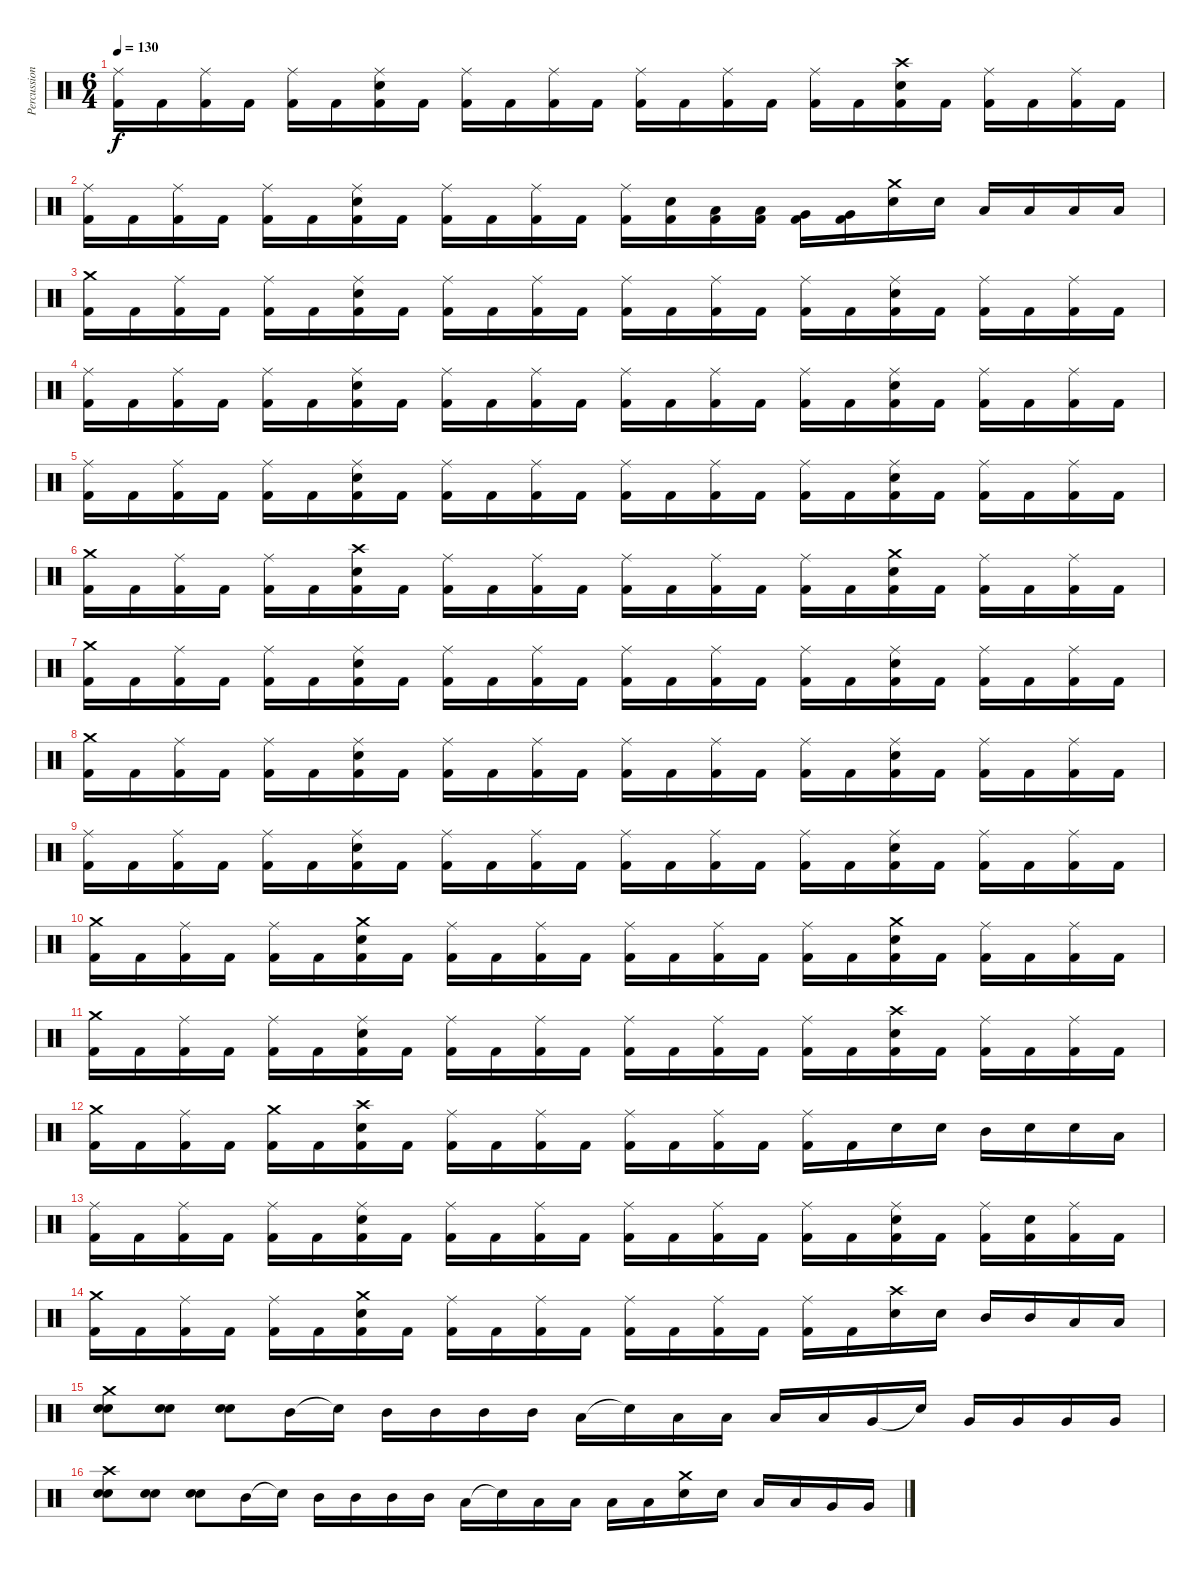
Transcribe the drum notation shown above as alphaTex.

\track ("Percussion" "Percussion") {instrument percussion}
\staff {score}
\articulation defaults
\ts (6 4)
\tempo 130
\clef neutral
\ks c
("Ride (middle)" "Kick (hit) 2").16{dy f} "Kick (hit) 2".16 ("Ride (middle)" "Kick (hit) 2").16 "Kick (hit) 2".16 ("Ride (middle)" "Kick (hit) 2").16 "Kick (hit) 2".16 ("Ride (middle)" "Snare (hit) 2" "Kick (hit) 2").16 "Kick (hit) 2".16 ("Ride (middle)" "Kick (hit) 2").16 "Kick (hit) 2".16 ("Ride (middle)" "Kick (hit) 2").16 "Kick (hit) 2".16 ("Ride (middle)" "Kick (hit) 2").16 "Kick (hit) 2".16 ("Ride (middle)" "Kick (hit) 2").16 "Kick (hit) 2".16 ("Ride (middle)" "Kick (hit) 2").16 "Kick (hit) 2".16 ("Crash high (hit)" "Snare (hit) 2" "Kick (hit) 2").16 "Kick (hit) 2".16 ("Ride (middle)" "Kick (hit) 2").16 "Kick (hit) 2".16 ("Ride (middle)" "Kick (hit) 2").16 "Kick (hit) 2".16 |
("Ride (middle)" "Kick (hit) 2").16 "Kick (hit) 2".16 ("Ride (middle)" "Kick (hit) 2").16 "Kick (hit) 2".16 ("Ride (middle)" "Kick (hit) 2").16 "Kick (hit) 2".16 ("Ride (middle)" "Snare (hit) 2" "Kick (hit) 2").16 "Kick (hit) 2".16 ("Ride (middle)" "Kick (hit) 2").16 "Kick (hit) 2".16 ("Ride (middle)" "Kick (hit) 2").16 "Kick (hit) 2".16 ("Ride (middle)" "Kick (hit) 2").16 ("Snare (hit) 2" "Kick (hit) 2").16 ("Low Tom (hit)" "Kick (hit) 2").16 ("Low Tom (hit)" "Kick (hit) 2").16 ("Very Low Tom (hit)" "Kick (hit) 2").16 ("Very Low Tom (hit)" "Kick (hit) 2").16 ("Crash medium (hit)" "Electric Snare (hit)").16 "Snare (hit) 2".16 "Low Tom (hit)".16 "Low Tom (hit)".16 "Low Tom (hit)".16 "Low Tom (hit)".16 |
("Crash medium (hit)" "Kick (hit) 2").16 "Kick (hit) 2".16 ("Ride (middle)" "Kick (hit) 2").16 "Kick (hit) 2".16 ("Ride (middle)" "Kick (hit) 2").16 "Kick (hit) 2".16 ("Ride (middle)" "Snare (hit) 2" "Kick (hit) 2").16 "Kick (hit) 2".16 ("Ride (middle)" "Kick (hit) 2").16 "Kick (hit) 2".16 ("Ride (middle)" "Kick (hit) 2").16 "Kick (hit) 2".16 ("Ride (middle)" "Kick (hit) 2").16 "Kick (hit) 2".16 ("Ride (middle)" "Kick (hit) 2").16 "Kick (hit) 2".16 ("Ride (middle)" "Kick (hit) 2").16 "Kick (hit) 2".16 ("Ride (middle)" "Snare (hit) 2" "Kick (hit) 2").16 "Kick (hit) 2".16 ("Ride (middle)" "Kick (hit) 2").16 "Kick (hit) 2".16 ("Ride (middle)" "Kick (hit) 2").16 "Kick (hit) 2".16 |
("Ride (middle)" "Kick (hit) 2").16 "Kick (hit) 2".16 ("Ride (middle)" "Kick (hit) 2").16 "Kick (hit) 2".16 ("Ride (middle)" "Kick (hit) 2").16 "Kick (hit) 2".16 ("Ride (middle)" "Snare (hit) 2" "Kick (hit) 2").16 "Kick (hit) 2".16 ("Ride (middle)" "Kick (hit) 2").16 "Kick (hit) 2".16 ("Ride (middle)" "Kick (hit) 2").16 "Kick (hit) 2".16 ("Ride (middle)" "Kick (hit) 2").16 "Kick (hit) 2".16 ("Ride (middle)" "Kick (hit) 2").16 "Kick (hit) 2".16 ("Ride (middle)" "Kick (hit) 2").16 "Kick (hit) 2".16 ("Ride (middle)" "Snare (hit) 2" "Kick (hit) 2").16 "Kick (hit) 2".16 ("Ride (middle)" "Kick (hit) 2").16 "Kick (hit) 2".16 ("Ride (middle)" "Kick (hit) 2").16 "Kick (hit) 2".16 |
("Ride (middle)" "Kick (hit) 2").16 "Kick (hit) 2".16 ("Ride (middle)" "Kick (hit) 2").16 "Kick (hit) 2".16 ("Ride (middle)" "Kick (hit) 2").16 "Kick (hit) 2".16 ("Ride (middle)" "Snare (hit) 2" "Kick (hit) 2").16 "Kick (hit) 2".16 ("Ride (middle)" "Kick (hit) 2").16 "Kick (hit) 2".16 ("Ride (middle)" "Kick (hit) 2").16 "Kick (hit) 2".16 ("Ride (middle)" "Kick (hit) 2").16 "Kick (hit) 2".16 ("Ride (middle)" "Kick (hit) 2").16 "Kick (hit) 2".16 ("Ride (middle)" "Kick (hit) 2").16 "Kick (hit) 2".16 ("Ride (middle)" "Snare (hit) 2" "Kick (hit) 2").16 "Kick (hit) 2".16 ("Ride (middle)" "Kick (hit) 2").16 "Kick (hit) 2".16 ("Ride (middle)" "Kick (hit) 2").16 "Kick (hit) 2".16 |
("Crash medium (hit)" "Kick (hit) 2").16 "Kick (hit) 2".16 ("Ride (middle)" "Kick (hit) 2").16 "Kick (hit) 2".16 ("Ride (middle)" "Kick (hit) 2").16 "Kick (hit) 2".16 ("Crash high (hit)" "Snare (hit) 2" "Kick (hit) 2").16 "Kick (hit) 2".16 ("Ride (middle)" "Kick (hit) 2").16 "Kick (hit) 2".16 ("Ride (middle)" "Kick (hit) 2").16 "Kick (hit) 2".16 ("Ride (middle)" "Kick (hit) 2").16 "Kick (hit) 2".16 ("Ride (middle)" "Kick (hit) 2").16 "Kick (hit) 2".16 ("Ride (middle)" "Kick (hit) 2").16 "Kick (hit) 2".16 ("Crash medium (hit)" "Snare (hit) 2" "Kick (hit) 2").16 "Kick (hit) 2".16 ("Ride (middle)" "Kick (hit) 2").16 "Kick (hit) 2".16 ("Ride (middle)" "Kick (hit) 2").16 "Kick (hit) 2".16 |
("Crash medium (hit)" "Kick (hit) 2").16 "Kick (hit) 2".16 ("Ride (middle)" "Kick (hit) 2").16 "Kick (hit) 2".16 ("Ride (middle)" "Kick (hit) 2").16 "Kick (hit) 2".16 ("Ride (middle)" "Snare (hit) 2" "Kick (hit) 2").16 "Kick (hit) 2".16 ("Ride (middle)" "Kick (hit) 2").16 "Kick (hit) 2".16 ("Ride (middle)" "Kick (hit) 2").16 "Kick (hit) 2".16 ("Ride (middle)" "Kick (hit) 2").16 "Kick (hit) 2".16 ("Ride (middle)" "Kick (hit) 2").16 "Kick (hit) 2".16 ("Ride (middle)" "Kick (hit) 2").16 "Kick (hit) 2".16 ("Ride (middle)" "Snare (hit) 2" "Kick (hit) 2").16 "Kick (hit) 2".16 ("Ride (middle)" "Kick (hit) 2").16 "Kick (hit) 2".16 ("Ride (middle)" "Kick (hit) 2").16 "Kick (hit) 2".16 |
("Crash medium (hit)" "Kick (hit) 2").16 "Kick (hit) 2".16 ("Ride (middle)" "Kick (hit) 2").16 "Kick (hit) 2".16 ("Ride (middle)" "Kick (hit) 2").16 "Kick (hit) 2".16 ("Ride (middle)" "Snare (hit) 2" "Kick (hit) 2").16 "Kick (hit) 2".16 ("Ride (middle)" "Kick (hit) 2").16 "Kick (hit) 2".16 ("Ride (middle)" "Kick (hit) 2").16 "Kick (hit) 2".16 ("Ride (middle)" "Kick (hit) 2").16 "Kick (hit) 2".16 ("Ride (middle)" "Kick (hit) 2").16 "Kick (hit) 2".16 ("Ride (middle)" "Kick (hit) 2").16 "Kick (hit) 2".16 ("Ride (middle)" "Snare (hit) 2" "Kick (hit) 2").16 "Kick (hit) 2".16 ("Ride (middle)" "Kick (hit) 2").16 "Kick (hit) 2".16 ("Ride (middle)" "Kick (hit) 2").16 "Kick (hit) 2".16 |
("Ride (middle)" "Kick (hit) 2").16 "Kick (hit) 2".16 ("Ride (middle)" "Kick (hit) 2").16 "Kick (hit) 2".16 ("Ride (middle)" "Kick (hit) 2").16 "Kick (hit) 2".16 ("Ride (middle)" "Snare (hit) 2" "Kick (hit) 2").16 "Kick (hit) 2".16 ("Ride (middle)" "Kick (hit) 2").16 "Kick (hit) 2".16 ("Ride (middle)" "Kick (hit) 2").16 "Kick (hit) 2".16 ("Ride (middle)" "Kick (hit) 2").16 "Kick (hit) 2".16 ("Ride (middle)" "Kick (hit) 2").16 "Kick (hit) 2".16 ("Ride (middle)" "Kick (hit) 2").16 "Kick (hit) 2".16 ("Ride (middle)" "Snare (hit) 2" "Kick (hit) 2").16 "Kick (hit) 2".16 ("Ride (middle)" "Kick (hit) 2").16 "Kick (hit) 2".16 ("Ride (middle)" "Kick (hit) 2").16 "Kick (hit) 2".16 |
("Crash medium (hit)" "Kick (hit) 2").16 "Kick (hit) 2".16 ("Ride (middle)" "Kick (hit) 2").16 "Kick (hit) 2".16 ("Ride (middle)" "Kick (hit) 2").16 "Kick (hit) 2".16 ("Crash medium (hit)" "Snare (hit) 2" "Kick (hit) 2").16 "Kick (hit) 2".16 ("Ride (middle)" "Kick (hit) 2").16 "Kick (hit) 2".16 ("Ride (middle)" "Kick (hit) 2").16 "Kick (hit) 2".16 ("Ride (middle)" "Kick (hit) 2").16 "Kick (hit) 2".16 ("Ride (middle)" "Kick (hit) 2").16 "Kick (hit) 2".16 ("Ride (middle)" "Kick (hit) 2").16 "Kick (hit) 2".16 ("Crash medium (hit)" "Snare (hit) 2" "Kick (hit) 2").16 "Kick (hit) 2".16 ("Ride (middle)" "Kick (hit) 2").16 "Kick (hit) 2".16 ("Ride (middle)" "Kick (hit) 2").16 "Kick (hit) 2".16 |
("Crash medium (hit)" "Kick (hit) 2").16 "Kick (hit) 2".16 ("Ride (middle)" "Kick (hit) 2").16 "Kick (hit) 2".16 ("Ride (middle)" "Kick (hit) 2").16 "Kick (hit) 2".16 ("Ride (middle)" "Snare (hit) 2" "Kick (hit) 2").16 "Kick (hit) 2".16 ("Ride (middle)" "Kick (hit) 2").16 "Kick (hit) 2".16 ("Ride (middle)" "Kick (hit) 2").16 "Kick (hit) 2".16 ("Ride (middle)" "Kick (hit) 2").16 "Kick (hit) 2".16 ("Ride (middle)" "Kick (hit) 2").16 "Kick (hit) 2".16 ("Ride (middle)" "Kick (hit) 2").16 "Kick (hit) 2".16 ("Crash high (hit)" "Snare (hit) 2" "Kick (hit) 2").16 "Kick (hit) 2".16 ("Ride (middle)" "Kick (hit) 2").16 "Kick (hit) 2".16 ("Ride (middle)" "Kick (hit) 2").16 "Kick (hit) 2".16 |
("Crash medium (hit)" "Kick (hit) 2").16 "Kick (hit) 2".16 ("Ride (middle)" "Kick (hit) 2").16 "Kick (hit) 2".16 ("Crash medium (hit)" "Kick (hit) 2").16 "Kick (hit) 2".16 ("Crash high (hit)" "Snare (hit) 2" "Kick (hit) 2").16 "Kick (hit) 2".16 ("Ride (middle)" "Kick (hit) 2").16 "Kick (hit) 2".16 ("Ride (middle)" "Kick (hit) 2").16 "Kick (hit) 2".16 ("Ride (middle)" "Kick (hit) 2").16 "Kick (hit) 2".16 ("Ride (middle)" "Kick (hit) 2").16 "Kick (hit) 2".16 ("Ride (middle)" "Kick (hit) 2").16 "Kick (hit) 2".16 "Snare (hit) 2".16 "Snare (hit) 2".16 "Mid Tom (hit)".16 "Snare (hit) 2".16 "Snare (hit) 2".16 "Low Tom (hit)".16 |
("Ride (middle)" "Kick (hit) 2").16 "Kick (hit) 2".16 ("Ride (middle)" "Kick (hit) 2").16 "Kick (hit) 2".16 ("Ride (middle)" "Kick (hit) 2").16 "Kick (hit) 2".16 ("Ride (middle)" "Snare (hit) 2" "Kick (hit) 2").16 "Kick (hit) 2".16 ("Ride (middle)" "Kick (hit) 2").16 "Kick (hit) 2".16 ("Ride (middle)" "Kick (hit) 2").16 "Kick (hit) 2".16 ("Ride (middle)" "Kick (hit) 2").16 "Kick (hit) 2".16 ("Ride (middle)" "Kick (hit) 2").16 "Kick (hit) 2".16 ("Ride (middle)" "Kick (hit) 2").16 "Kick (hit) 2".16 ("Ride (middle)" "Snare (hit) 2" "Kick (hit) 2").16 "Kick (hit) 2".16 ("Ride (middle)" "Kick (hit) 2").16 ("Snare (hit) 2" "Kick (hit) 2").16 ("Ride (middle)" "Kick (hit) 2").16 "Kick (hit) 2".16 |
("Crash medium (hit)" "Kick (hit) 2").16 "Kick (hit) 2".16 ("Ride (middle)" "Kick (hit) 2").16 "Kick (hit) 2".16 ("Ride (middle)" "Kick (hit) 2").16 "Kick (hit) 2".16 ("Crash medium (hit)" "Snare (hit) 2" "Kick (hit) 2").16 "Kick (hit) 2".16 ("Ride (middle)" "Kick (hit) 2").16 "Kick (hit) 2".16 ("Ride (middle)" "Kick (hit) 2").16 "Kick (hit) 2".16 ("Ride (middle)" "Kick (hit) 2").16 "Kick (hit) 2".16 ("Ride (middle)" "Kick (hit) 2").16 "Kick (hit) 2".16 ("Ride (middle)" "Kick (hit) 2").16 "Kick (hit) 2".16 ("Crash high (hit)" "Snare (hit) 2").16 "Snare (hit) 2".16 "Mid Tom (hit)".16 "Mid Tom (hit)".16 "Low Tom (hit)".16 "Low Tom (hit)".16 |
("Snare (hit) 2" "Snare (hit) 2" "Crash medium (hit)").8{bd 60} ("Snare (hit) 2" "Snare (hit) 2").8{bd 60} ("Snare (hit) 2" "Snare (hit) 2").8{bd 60} "Mid Tom (hit)".16 "Snare (hit)"{t}.16 "Mid Tom (hit)".16 "Mid Tom (hit)".16 "Mid Tom (hit)".16 "Mid Tom (hit)".16 "Low Tom (hit)".16 "Snare (hit)"{t}.16 "Low Tom (hit)".16 "Low Tom (hit)".16 "Low Tom (hit)".16 "Low Tom (hit)".16 "Very Low Tom (hit)".16 "Snare (hit)"{t}.16 "Very Low Tom (hit)".16 "Very Low Tom (hit)".16 "Very Low Tom (hit)".16 "Very Low Tom (hit)".16 |
("Snare (hit) 2" "Snare (hit) 2" "Crash high (hit)").8{bd 60} ("Snare (hit) 2" "Snare (hit) 2").8{bd 60} ("Snare (hit) 2" "Snare (hit) 2").8{bd 60} "Mid Tom (hit)".16 "Snare (hit)"{t}.16 "Mid Tom (hit)".16 "Mid Tom (hit)".16 "Mid Tom (hit)".16 "Mid Tom (hit)".16 "Low Tom (hit)".16 "Snare (hit)"{t}.16 "Low Tom (hit)".16 "Low Tom (hit)".16 "Low Tom (hit)".16 "Low Tom (hit)".16 ("Crash medium (hit)" "Snare (hit) 2").16 "Snare (hit) 2".16 "Low Tom (hit)".16 "Low Tom (hit)".16 "Very Low Tom (hit)".16 "Very Low Tom (hit)".16
